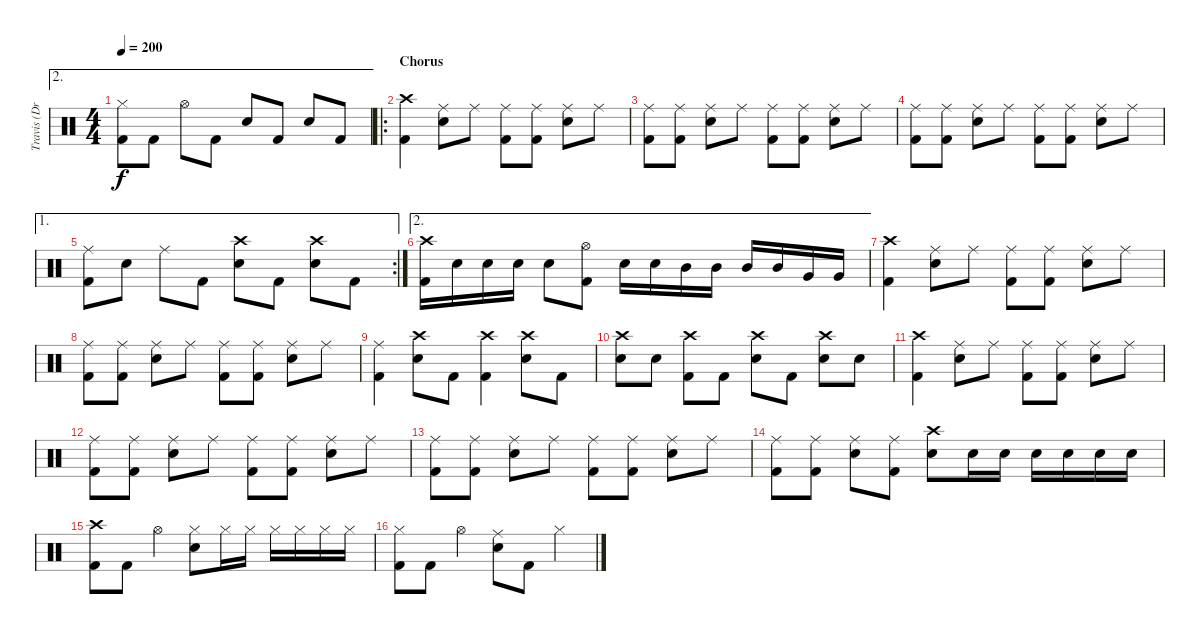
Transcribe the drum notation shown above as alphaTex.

\track ("Travis (Drums)" "Travis (Dr") {instrument percussion}
\staff {score}
\articulation defaults
\ae 2
\ts (4 4)
\tempo 200
\clef neutral
\ks c
("Hi-Hat (closed)" "Kick (hit) 2").8{dy f} "Kick (hit) 2".8 "Hi-Hat (open)".8 "Kick (hit) 2".8 "Electric Snare (hit)".8 "Kick (hit) 2".8 "Electric Snare (hit)".8 "Kick (hit) 2".8 |
\ro
\section ("" "Chorus")
("Crash high (hit)" "Kick (hit) 2").4 ("Ride (middle)" "Electric Snare (hit)").8 "Ride (middle)".8 ("Ride (middle)" "Kick (hit) 2").8 ("Ride (middle)" "Kick (hit) 2").8 ("Ride (middle)" "Electric Snare (hit)").8 "Ride (middle)".8 |
("Ride (middle)" "Kick (hit) 2").8 ("Ride (middle)" "Kick (hit) 2").8 ("Ride (middle)" "Electric Snare (hit)").8 "Ride (middle)".8 ("Ride (middle)" "Kick (hit) 2").8 ("Ride (middle)" "Kick (hit) 2").8 ("Ride (middle)" "Electric Snare (hit)").8 "Ride (middle)".8 |
("Ride (middle)" "Kick (hit) 2").8 ("Ride (middle)" "Kick (hit) 2").8 ("Ride (middle)" "Electric Snare (hit)").8 "Ride (middle)".8 ("Ride (middle)" "Kick (hit) 2").8 ("Ride (middle)" "Kick (hit) 2").8 ("Ride (middle)" "Electric Snare (hit)").8 "Ride (middle)".8 |
\ae 1
\rc 2
("Ride (middle)" "Kick (hit) 2").8 "Electric Snare (hit)".8 "Ride (middle)".8 "Kick (hit) 2".8 ("Crash high (hit)" "Electric Snare (hit)").8 "Kick (hit) 2".8 ("Crash high (hit)" "Electric Snare (hit)").8 "Kick (hit) 2".8 |
\ae 2
("Crash high (hit)" "Kick (hit) 2").16 "Electric Snare (hit)".16 "Electric Snare (hit)".16 "Electric Snare (hit)".16 "Electric Snare (hit)".8 ("Hi-Hat (open)" "Kick (hit) 2").8 "Electric Snare (hit)".16 "Electric Snare (hit)".16 "Mid Tom (hit)".16 "Mid Tom (hit)".16 "Mid Tom (hit)".16 "Mid Tom (hit)".16 "Very Low Tom (hit)".16 "Very Low Tom (hit)".16 |
("Crash high (hit)" "Kick (hit) 2").4 ("Ride (middle)" "Electric Snare (hit)").8 "Ride (middle)".8 ("Ride (middle)" "Kick (hit) 2").8 ("Ride (middle)" "Kick (hit) 2").8 ("Ride (middle)" "Electric Snare (hit)").8 "Ride (middle)".8 |
("Ride (middle)" "Kick (hit) 2").8 ("Ride (middle)" "Kick (hit) 2").8 ("Ride (middle)" "Electric Snare (hit)").8 "Ride (middle)".8 ("Ride (middle)" "Kick (hit) 2").8 ("Ride (middle)" "Kick (hit) 2").8 ("Ride (middle)" "Electric Snare (hit)").8 "Ride (middle)".8 |
("Ride (middle)" "Kick (hit) 2").4 ("Crash high (hit)" "Electric Snare (hit)").8 "Kick (hit) 2".8 ("Crash high (hit)" "Kick (hit) 2").4 ("Crash high (hit)" "Electric Snare (hit)").8 "Kick (hit) 2".8 |
("Crash high (hit)" "Electric Snare (hit)").8 "Electric Snare (hit)".8 ("Crash high (hit)" "Kick (hit) 2").8 "Kick (hit) 2".8 ("Crash high (hit)" "Electric Snare (hit)").8 "Kick (hit) 2".8 ("Crash high (hit)" "Electric Snare (hit)").8 "Electric Snare (hit)".8 |
("Crash high (hit)" "Kick (hit) 2").4 ("Ride (middle)" "Electric Snare (hit)").8 "Ride (middle)".8 ("Ride (middle)" "Kick (hit) 2").8 ("Ride (middle)" "Kick (hit) 2").8 ("Ride (middle)" "Electric Snare (hit)").8 "Ride (middle)".8 |
("Ride (middle)" "Kick (hit) 2").8 ("Ride (middle)" "Kick (hit) 2").8 ("Ride (middle)" "Electric Snare (hit)").8 "Ride (middle)".8 ("Ride (middle)" "Kick (hit) 2").8 ("Ride (middle)" "Kick (hit) 2").8 ("Ride (middle)" "Electric Snare (hit)").8 "Ride (middle)".8 |
("Ride (middle)" "Kick (hit) 2").8 ("Ride (middle)" "Kick (hit) 2").8 ("Ride (middle)" "Electric Snare (hit)").8 "Ride (middle)".8 ("Ride (middle)" "Kick (hit) 2").8 ("Ride (middle)" "Kick (hit) 2").8 ("Ride (middle)" "Electric Snare (hit)").8 "Ride (middle)".8 |
("Ride (middle)" "Kick (hit) 2").8 ("Ride (middle)" "Kick (hit) 2").8 ("Ride (middle)" "Electric Snare (hit)").8 ("Ride (middle)" "Kick (hit) 2").8 ("Crash high (hit)" "Electric Snare (hit)").8 "Electric Snare (hit)".16 "Electric Snare (hit)".16 "Electric Snare (hit)".16 "Electric Snare (hit)".16 "Electric Snare (hit)".16 "Electric Snare (hit)".16 |
("Crash high (hit)" "Kick (hit) 2").8 "Kick (hit) 2".8 "Hi-Hat (open)".4 ("Hi-Hat (closed)" "Electric Snare (hit)").8 "Hi-Hat (closed)".16 "Hi-Hat (closed)".16 "Hi-Hat (closed)".16 "Hi-Hat (closed)".16 "Hi-Hat (closed)".16 "Hi-Hat (closed)".16 |
("Hi-Hat (closed)" "Kick (hit) 2").8 "Kick (hit) 2".8 "Hi-Hat (open)".4 ("Ride (middle)" "Electric Snare (hit)").8 "Kick (hit) 2".8 "Hi-Hat (closed)".4
